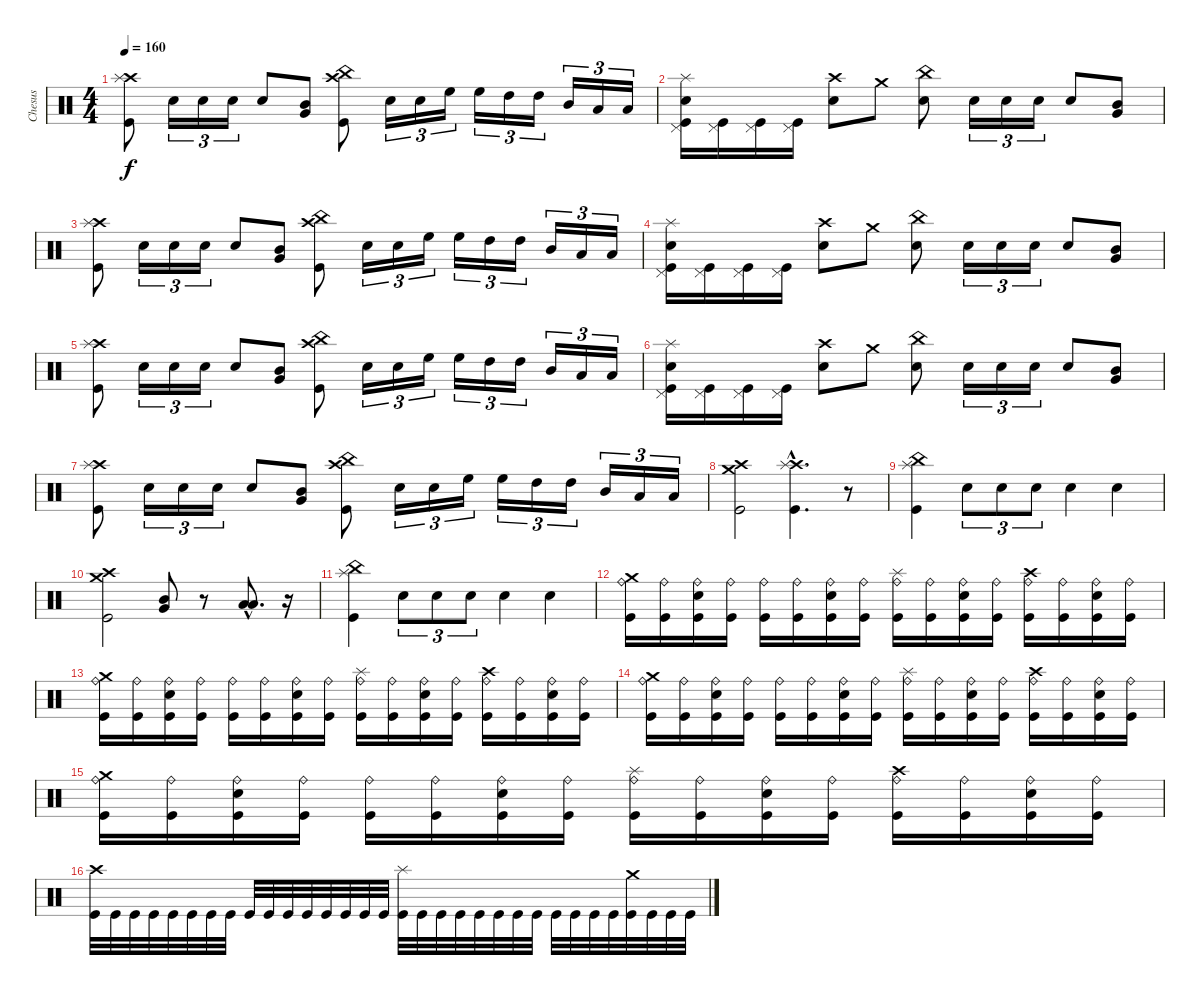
\track ("Chesus" "Chesus") {instrument percussion}
\staff {score}
\articulation defaults
\ts (4 4)
\tempo 160
\clef neutral
\ks c
("Crash high (hit)" "Splash (hit)" "Kick (hit)").8{dy f} "Snare (hit) 2".16{tu (3 2)} "Snare (hit) 2".16{tu (3 2)} "Snare (hit) 2".16{tu (3 2)} "Snare (hit) 2".8 ("Very Low Tom (hit)" "Mid Tom (hit)").8 ("Crash high (hit)" "China (hit)" "Kick (hit)").8 "Snare (hit) 2".16{tu (3 2)} "Snare (hit) 2".16{tu (3 2)} "High Floor Tom (hit)".16{tu (3 2)} "High Floor Tom (hit)".16{tu (3 2)} "High Tom (hit)".16{tu (3 2)} "High Tom (hit)".16{tu (3 2)} "Mid Tom (hit)".16{tu (3 2)} "Low Tom (hit)".16{tu (3 2)} "Low Tom (hit)".16{tu (3 2)} |
("Splash (hit)" "Pedal Hi-Hat (hit)" "Snare (hit) 2" "Kick (hit)").16 ("Pedal Hi-Hat (hit)" "Kick (hit)").16 ("Pedal Hi-Hat (hit)" "Kick (hit)").16 ("Pedal Hi-Hat (hit)" "Kick (hit)").16 ("Crash high (hit)" "Snare (hit) 2").8 "Crash medium (hit)".8 ("China (hit)" "Snare (hit) 2").8 "Snare (hit) 2".16{tu (3 2)} "Snare (hit) 2".16{tu (3 2)} "Snare (hit) 2".16{tu (3 2)} "Snare (hit) 2".8 ("Very Low Tom (hit)" "Mid Tom (hit)").8 |
("Crash high (hit)" "Splash (hit)" "Kick (hit)").8 "Snare (hit) 2".16{tu (3 2)} "Snare (hit) 2".16{tu (3 2)} "Snare (hit) 2".16{tu (3 2)} "Snare (hit) 2".8 ("Very Low Tom (hit)" "Mid Tom (hit)").8 ("Crash high (hit)" "China (hit)" "Kick (hit)").8 "Snare (hit) 2".16{tu (3 2)} "Snare (hit) 2".16{tu (3 2)} "High Floor Tom (hit)".16{tu (3 2)} "High Floor Tom (hit)".16{tu (3 2)} "High Tom (hit)".16{tu (3 2)} "High Tom (hit)".16{tu (3 2)} "Mid Tom (hit)".16{tu (3 2)} "Low Tom (hit)".16{tu (3 2)} "Low Tom (hit)".16{tu (3 2)} |
("Splash (hit)" "Pedal Hi-Hat (hit)" "Snare (hit) 2" "Kick (hit)").16 ("Pedal Hi-Hat (hit)" "Kick (hit)").16 ("Pedal Hi-Hat (hit)" "Kick (hit)").16 ("Pedal Hi-Hat (hit)" "Kick (hit)").16 ("Crash high (hit)" "Snare (hit) 2").8 "Crash medium (hit)".8 ("China (hit)" "Snare (hit) 2").8 "Snare (hit) 2".16{tu (3 2)} "Snare (hit) 2".16{tu (3 2)} "Snare (hit) 2".16{tu (3 2)} "Snare (hit) 2".8 ("Very Low Tom (hit)" "Mid Tom (hit)").8 |
("Crash high (hit)" "Splash (hit)" "Kick (hit)").8 "Snare (hit) 2".16{tu (3 2)} "Snare (hit) 2".16{tu (3 2)} "Snare (hit) 2".16{tu (3 2)} "Snare (hit) 2".8 ("Very Low Tom (hit)" "Mid Tom (hit)").8 ("Crash high (hit)" "China (hit)" "Kick (hit)").8 "Snare (hit) 2".16{tu (3 2)} "Snare (hit) 2".16{tu (3 2)} "High Floor Tom (hit)".16{tu (3 2)} "High Floor Tom (hit)".16{tu (3 2)} "High Tom (hit)".16{tu (3 2)} "High Tom (hit)".16{tu (3 2)} "Mid Tom (hit)".16{tu (3 2)} "Low Tom (hit)".16{tu (3 2)} "Low Tom (hit)".16{tu (3 2)} |
("Splash (hit)" "Pedal Hi-Hat (hit)" "Snare (hit) 2" "Kick (hit)").16 ("Pedal Hi-Hat (hit)" "Kick (hit)").16 ("Pedal Hi-Hat (hit)" "Kick (hit)").16 ("Pedal Hi-Hat (hit)" "Kick (hit)").16 ("Crash high (hit)" "Snare (hit) 2").8 "Crash medium (hit)".8 ("China (hit)" "Snare (hit) 2").8 "Snare (hit) 2".16{tu (3 2)} "Snare (hit) 2".16{tu (3 2)} "Snare (hit) 2".16{tu (3 2)} "Snare (hit) 2".8 ("Very Low Tom (hit)" "Mid Tom (hit)").8 |
("Crash high (hit)" "Splash (hit)" "Kick (hit)").8 "Snare (hit) 2".16{tu (3 2)} "Snare (hit) 2".16{tu (3 2)} "Snare (hit) 2".16{tu (3 2)} "Snare (hit) 2".8 ("Very Low Tom (hit)" "Mid Tom (hit)").8 ("Crash high (hit)" "China (hit)" "Kick (hit)").8 "Snare (hit) 2".16{tu (3 2)} "Snare (hit) 2".16{tu (3 2)} "High Floor Tom (hit)".16{tu (3 2)} "High Floor Tom (hit)".16{tu (3 2)} "High Tom (hit)".16{tu (3 2)} "High Tom (hit)".16{tu (3 2)} "Mid Tom (hit)".16{tu (3 2)} "Low Tom (hit)".16{tu (3 2)} "Low Tom (hit)".16{tu (3 2)} |
("Crash high (hit)" "Crash medium (hit)" "Kick (hit)").2 ("Crash high (hit)"{hac} "Splash (hit)"{hac} "Kick (hit)"{hac}).4{d} r.8 |
("Splash (hit)" "China (hit)" "Kick (hit)").4 "Snare (hit) 2".8{tu (3 2)} "Snare (hit) 2".8{tu (3 2)} "Snare (hit) 2".8{tu (3 2)} "Snare (hit) 2".4 "Snare (hit) 2".4 |
("Crash medium (hit)" "Crash high (hit)" "Kick (hit)").2 ("Mid Tom (hit)" "Very Low Tom (hit)").8 r.8 ("Low Tom (hit)"{hac} "Low Floor Tom (hit)"{hac}).8{d} r.16 |
("Splash (hit)" "China (hit)" "Kick (hit)").4 "Snare (hit) 2".8{tu (3 2)} "Snare (hit) 2".8{tu (3 2)} "Snare (hit) 2".8{tu (3 2)} "Snare (hit) 2".4 "Snare (hit) 2".4 |
("Crash medium (hit)" "Ride (bell)" "Kick (hit)").16 ("Ride (bell)" "Kick (hit)").16 ("Ride (bell)" "Snare (hit) 2" "Kick (hit)").16 ("Ride (bell)" "Kick (hit)").16 ("Ride (bell)" "Kick (hit)").16 ("Ride (bell)" "Kick (hit)").16 ("Ride (bell)" "Snare (hit) 2" "Kick (hit)").16 ("Ride (bell)" "Kick (hit)").16 ("Splash (hit)" "Ride (bell)" "Kick (hit)").16 ("Ride (bell)" "Kick (hit)").16 ("Ride (bell)" "Snare (hit) 2" "Kick (hit)").16 ("Ride (bell)" "Kick (hit)").16 ("Crash high (hit)" "Ride (bell)" "Kick (hit)").16 ("Ride (bell)" "Kick (hit)").16 ("Ride (bell)" "Snare (hit) 2" "Kick (hit)").16 ("Ride (bell)" "Kick (hit)").16 |
("Crash medium (hit)" "Ride (bell)" "Kick (hit)").16 ("Ride (bell)" "Kick (hit)").16 ("Ride (bell)" "Snare (hit) 2" "Kick (hit)").16 ("Ride (bell)" "Kick (hit)").16 ("Ride (bell)" "Kick (hit)").16 ("Ride (bell)" "Kick (hit)").16 ("Ride (bell)" "Snare (hit) 2" "Kick (hit)").16 ("Ride (bell)" "Kick (hit)").16 ("Splash (hit)" "Ride (bell)" "Kick (hit)").16 ("Ride (bell)" "Kick (hit)").16 ("Ride (bell)" "Snare (hit) 2" "Kick (hit)").16 ("Ride (bell)" "Kick (hit)").16 ("Crash high (hit)" "Ride (bell)" "Kick (hit)").16 ("Ride (bell)" "Kick (hit)").16 ("Ride (bell)" "Snare (hit) 2" "Kick (hit)").16 ("Ride (bell)" "Kick (hit)").16 |
("Crash medium (hit)" "Ride (bell)" "Kick (hit)").16 ("Ride (bell)" "Kick (hit)").16 ("Ride (bell)" "Snare (hit) 2" "Kick (hit)").16 ("Ride (bell)" "Kick (hit)").16 ("Ride (bell)" "Kick (hit)").16 ("Ride (bell)" "Kick (hit)").16 ("Ride (bell)" "Snare (hit) 2" "Kick (hit)").16 ("Ride (bell)" "Kick (hit)").16 ("Splash (hit)" "Ride (bell)" "Kick (hit)").16 ("Ride (bell)" "Kick (hit)").16 ("Ride (bell)" "Snare (hit) 2" "Kick (hit)").16 ("Ride (bell)" "Kick (hit)").16 ("Crash high (hit)" "Ride (bell)" "Kick (hit)").16 ("Ride (bell)" "Kick (hit)").16 ("Ride (bell)" "Snare (hit) 2" "Kick (hit)").16 ("Ride (bell)" "Kick (hit)").16 |
("Crash medium (hit)" "Ride (bell)" "Kick (hit)").16 ("Ride (bell)" "Kick (hit)").16 ("Ride (bell)" "Snare (hit) 2" "Kick (hit)").16 ("Ride (bell)" "Kick (hit)").16 ("Ride (bell)" "Kick (hit)").16 ("Ride (bell)" "Kick (hit)").16 ("Ride (bell)" "Snare (hit) 2" "Kick (hit)").16 ("Ride (bell)" "Kick (hit)").16 ("Splash (hit)" "Ride (bell)" "Kick (hit)").16 ("Ride (bell)" "Kick (hit)").16 ("Ride (bell)" "Snare (hit) 2" "Kick (hit)").16 ("Ride (bell)" "Kick (hit)").16 ("Crash high (hit)" "Ride (bell)" "Kick (hit)").16 ("Ride (bell)" "Kick (hit)").16 ("Ride (bell)" "Snare (hit) 2" "Kick (hit)").16 ("Ride (bell)" "Kick (hit)").16 |
("Crash high (hit)" "Kick (hit)").32 "Kick (hit)".32 "Kick (hit)".32 "Kick (hit)".32 "Kick (hit)".32 "Kick (hit)".32 "Kick (hit)".32 "Kick (hit)".32 "Kick (hit)".32 "Kick (hit)".32 "Kick (hit)".32 "Kick (hit)".32 "Kick (hit)".32 "Kick (hit)".32 "Kick (hit)".32 "Kick (hit)".32 ("Splash (hit)" "Kick (hit)").32 "Kick (hit)".32 "Kick (hit)".32 "Kick (hit)".32 "Kick (hit)".32 "Kick (hit)".32 "Kick (hit)".32 "Kick (hit)".32 "Kick (hit)".32 "Kick (hit)".32 "Kick (hit)".32 "Kick (hit)".32 ("Crash medium (hit)" "Kick (hit)").32 "Kick (hit)".32 "Kick (hit)".32 "Kick (hit)".32
